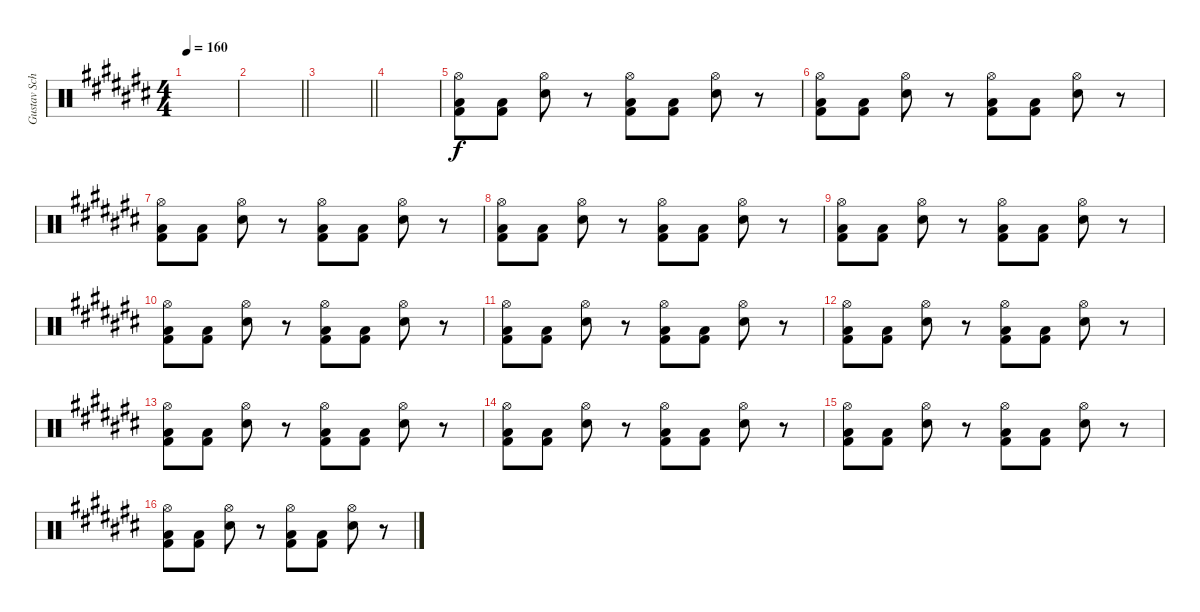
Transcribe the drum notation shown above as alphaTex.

\track ("Gustav Schäfer" "Gustav Sch") {instrument percussion}
\staff {score}
\articulation defaults
\ts (4 4)
\tempo 160
\clef neutral
\ks c#
|
\barLineRight lightlight
|
\barLineRight lightlight
|
|
("Low Floor Tom (hit)" "Kick (hit) 2" "Hi-Hat (open)").8 ("Low Floor Tom (hit)" "Kick (hit) 2").8 ("Electric Snare (hit)" "Hi-Hat (open)").8 r.8 ("Low Floor Tom (hit)" "Kick (hit) 2" "Hi-Hat (open)").8 ("Low Floor Tom (hit)" "Kick (hit) 2").8 ("Electric Snare (hit)" "Hi-Hat (open)").8 r.8 |
("Low Floor Tom (hit)" "Kick (hit) 2" "Hi-Hat (open)").8 ("Low Floor Tom (hit)" "Kick (hit) 2").8 ("Electric Snare (hit)" "Hi-Hat (open)").8 r.8 ("Low Floor Tom (hit)" "Kick (hit) 2" "Hi-Hat (open)").8 ("Low Floor Tom (hit)" "Kick (hit) 2").8 ("Electric Snare (hit)" "Hi-Hat (open)").8 r.8 |
("Low Floor Tom (hit)" "Kick (hit) 2" "Hi-Hat (open)").8 ("Low Floor Tom (hit)" "Kick (hit) 2").8 ("Electric Snare (hit)" "Hi-Hat (open)").8 r.8 ("Low Floor Tom (hit)" "Kick (hit) 2" "Hi-Hat (open)").8 ("Low Floor Tom (hit)" "Kick (hit) 2").8 ("Electric Snare (hit)" "Hi-Hat (open)").8 r.8 |
("Low Floor Tom (hit)" "Kick (hit) 2" "Hi-Hat (open)").8 ("Low Floor Tom (hit)" "Kick (hit) 2").8 ("Electric Snare (hit)" "Hi-Hat (open)").8 r.8 ("Low Floor Tom (hit)" "Kick (hit) 2" "Hi-Hat (open)").8 ("Low Floor Tom (hit)" "Kick (hit) 2").8 ("Electric Snare (hit)" "Hi-Hat (open)").8 r.8 |
("Low Floor Tom (hit)" "Kick (hit) 2" "Hi-Hat (open)").8 ("Low Floor Tom (hit)" "Kick (hit) 2").8 ("Electric Snare (hit)" "Hi-Hat (open)").8 r.8 ("Low Floor Tom (hit)" "Kick (hit) 2" "Hi-Hat (open)").8 ("Low Floor Tom (hit)" "Kick (hit) 2").8 ("Electric Snare (hit)" "Hi-Hat (open)").8 r.8 |
("Low Floor Tom (hit)" "Kick (hit) 2" "Hi-Hat (open)").8 ("Low Floor Tom (hit)" "Kick (hit) 2").8 ("Electric Snare (hit)" "Hi-Hat (open)").8 r.8 ("Low Floor Tom (hit)" "Kick (hit) 2" "Hi-Hat (open)").8 ("Low Floor Tom (hit)" "Kick (hit) 2").8 ("Electric Snare (hit)" "Hi-Hat (open)").8 r.8 |
("Low Floor Tom (hit)" "Kick (hit) 2" "Hi-Hat (open)").8 ("Low Floor Tom (hit)" "Kick (hit) 2").8 ("Electric Snare (hit)" "Hi-Hat (open)").8 r.8 ("Low Floor Tom (hit)" "Kick (hit) 2" "Hi-Hat (open)").8 ("Low Floor Tom (hit)" "Kick (hit) 2").8 ("Electric Snare (hit)" "Hi-Hat (open)").8 r.8 |
("Low Floor Tom (hit)" "Kick (hit) 2" "Hi-Hat (open)").8 ("Low Floor Tom (hit)" "Kick (hit) 2").8 ("Electric Snare (hit)" "Hi-Hat (open)").8 r.8 ("Low Floor Tom (hit)" "Kick (hit) 2" "Hi-Hat (open)").8 ("Low Floor Tom (hit)" "Kick (hit) 2").8 ("Electric Snare (hit)" "Hi-Hat (open)").8 r.8 |
("Low Floor Tom (hit)" "Kick (hit) 2" "Hi-Hat (open)").8 ("Low Floor Tom (hit)" "Kick (hit) 2").8 ("Electric Snare (hit)" "Hi-Hat (open)").8 r.8 ("Low Floor Tom (hit)" "Kick (hit) 2" "Hi-Hat (open)").8 ("Low Floor Tom (hit)" "Kick (hit) 2").8 ("Electric Snare (hit)" "Hi-Hat (open)").8 r.8 |
("Low Floor Tom (hit)" "Kick (hit) 2" "Hi-Hat (open)").8 ("Low Floor Tom (hit)" "Kick (hit) 2").8 ("Electric Snare (hit)" "Hi-Hat (open)").8 r.8 ("Low Floor Tom (hit)" "Kick (hit) 2" "Hi-Hat (open)").8 ("Low Floor Tom (hit)" "Kick (hit) 2").8 ("Electric Snare (hit)" "Hi-Hat (open)").8 r.8 |
("Low Floor Tom (hit)" "Kick (hit) 2" "Hi-Hat (open)").8 ("Low Floor Tom (hit)" "Kick (hit) 2").8 ("Electric Snare (hit)" "Hi-Hat (open)").8 r.8 ("Low Floor Tom (hit)" "Kick (hit) 2" "Hi-Hat (open)").8 ("Low Floor Tom (hit)" "Kick (hit) 2").8 ("Electric Snare (hit)" "Hi-Hat (open)").8 r.8 |
("Low Floor Tom (hit)" "Kick (hit) 2" "Hi-Hat (open)").8 ("Low Floor Tom (hit)" "Kick (hit) 2").8 ("Electric Snare (hit)" "Hi-Hat (open)").8 r.8 ("Low Floor Tom (hit)" "Kick (hit) 2" "Hi-Hat (open)").8 ("Low Floor Tom (hit)" "Kick (hit) 2").8 ("Electric Snare (hit)" "Hi-Hat (open)").8 r.8
